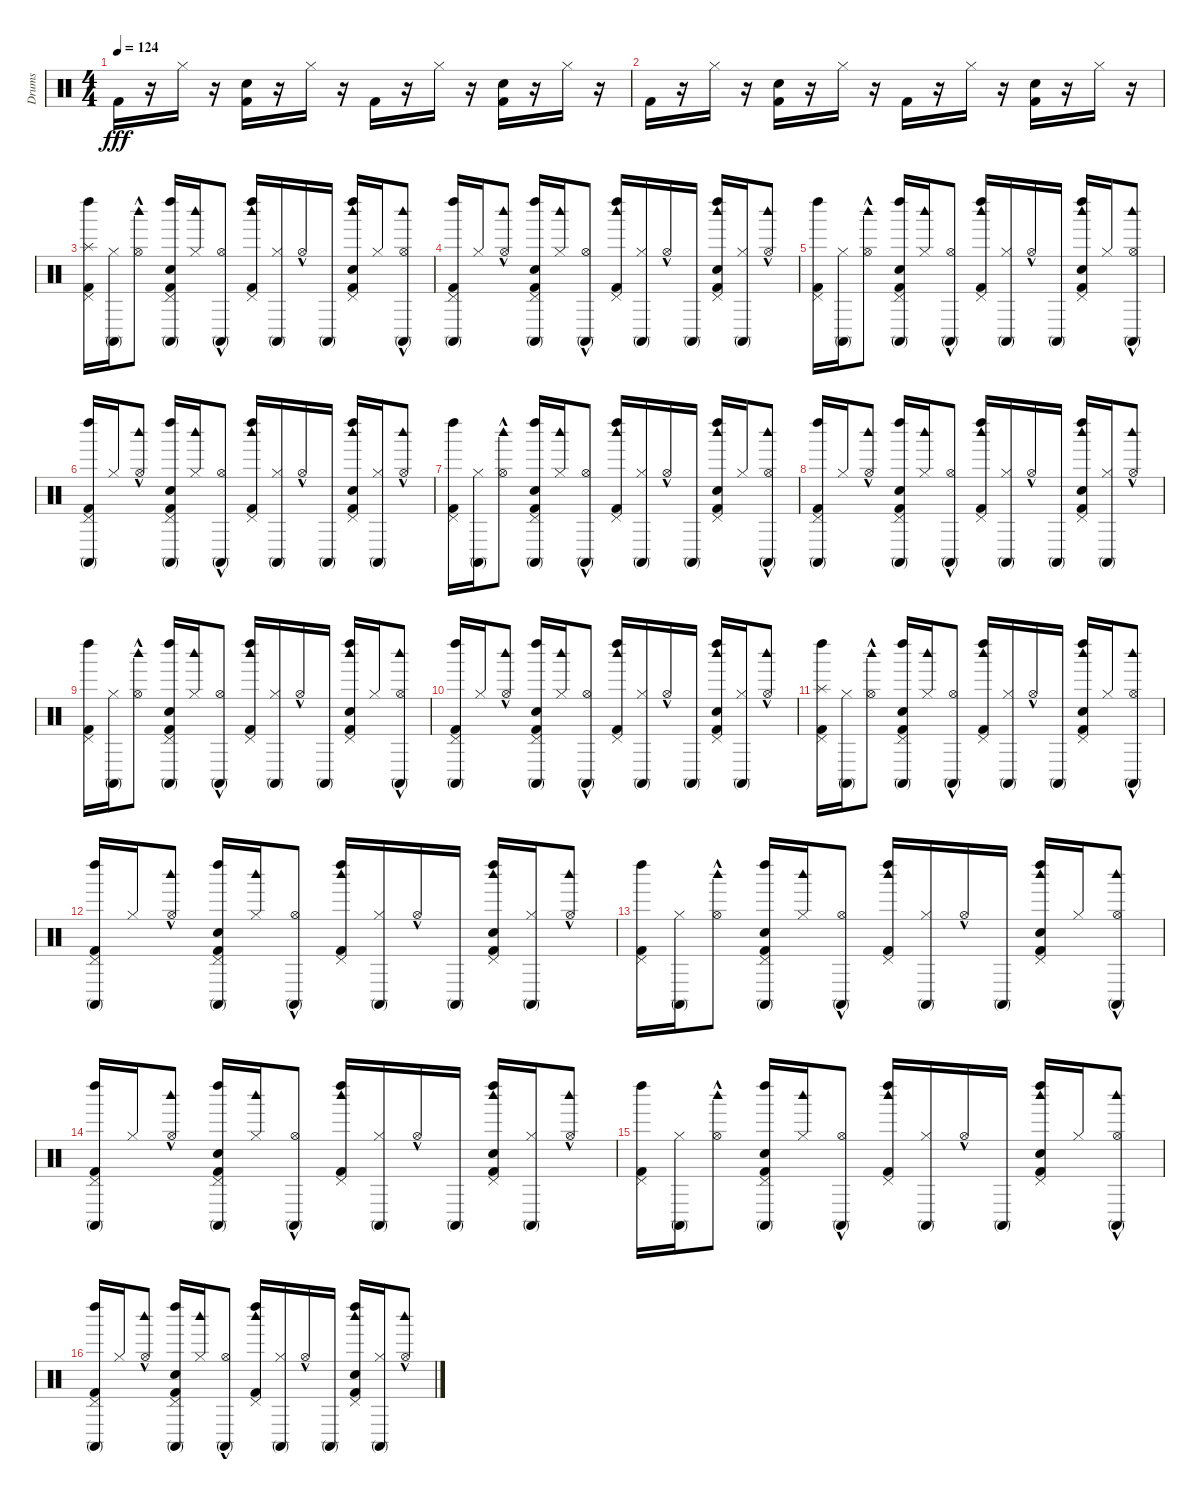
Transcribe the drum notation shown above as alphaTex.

\track ("Drums" "Drums") {instrument percussion}
\staff {score}
\articulation defaults
\ts (4 4)
\tempo 124
\clef neutral
\ks c "Kick (hit) 2".16{dy fff}
r.16 "Hi-Hat (closed)".16 r.16 ("Electric Snare (hit)" "Kick (hit) 2").16 r.16 "Hi-Hat (closed)".16 r.16 "Kick (hit) 2".16 r.16 "Hi-Hat (closed)".16 r.16 ("Electric Snare (hit)" "Kick (hit) 2").16 r.16 "Hi-Hat (closed)".16 r.16 |
"Kick (hit) 2".16 r.16 "Hi-Hat (closed)".16 r.16 ("Electric Snare (hit)" "Kick (hit) 2").16 r.16 "Hi-Hat (closed)".16 r.16 "Kick (hit) 2".16 r.16 "Hi-Hat (closed)".16 r.16 ("Electric Snare (hit)" "Kick (hit) 2").16 r.16 "Hi-Hat (closed)".16 r.16 |
("Splash (hit)" "Pedal Hi-Hat (hit)" "Kick (hit) 2" "Left Maraca (hit)").16 ("Hi-Hat (closed)" "Conga high (mute)").16 ("Hi-Hat (open)"{hac} "Woodblock high (hit)").8 ("Electric Snare (hit)" "Pedal Hi-Hat (hit)" "Kick (hit) 2" "Conga high (mute)" "Left Maraca (hit)").16 ("Hi-Hat (closed)" "Woodblock high (hit)").16 ("Hi-Hat (open)"{hac} "Conga high (mute)").8 ("Pedal Hi-Hat (hit)" "Kick (hit) 2" "Woodblock high (hit)" "Left Maraca (hit)").16 ("Hi-Hat (closed)" "Conga high (mute)").16 "Hi-Hat (open)"{hac}.16 "Conga high (mute)".16 ("Electric Snare (hit)" "Pedal Hi-Hat (hit)" "Kick (hit) 2" "Woodblock high (hit)" "Left Maraca (hit)").16 "Hi-Hat (closed)".16 ("Hi-Hat (open)"{hac} "Conga high (mute)" "Woodblock high (hit)").8 |
("Pedal Hi-Hat (hit)" "Kick (hit) 2" "Conga high (mute)" "Left Maraca (hit)").16 "Hi-Hat (closed)".16 ("Hi-Hat (open)"{hac} "Woodblock high (hit)").8 ("Electric Snare (hit)" "Pedal Hi-Hat (hit)" "Kick (hit) 2" "Conga high (mute)" "Left Maraca (hit)").16 ("Hi-Hat (closed)" "Woodblock high (hit)").16 ("Hi-Hat (open)"{hac} "Conga high (mute)").8 ("Pedal Hi-Hat (hit)" "Kick (hit) 2" "Woodblock high (hit)" "Left Maraca (hit)").16 ("Hi-Hat (closed)" "Conga high (mute)").16 "Hi-Hat (open)"{hac}.16 "Conga high (mute)".16 ("Electric Snare (hit)" "Pedal Hi-Hat (hit)" "Kick (hit) 2" "Woodblock high (hit)" "Left Maraca (hit)").16 ("Hi-Hat (closed)" "Conga high (mute)").16 ("Hi-Hat (open)"{hac} "Woodblock high (hit)").8 |
("Pedal Hi-Hat (hit)" "Kick (hit) 2" "Left Maraca (hit)").16 ("Hi-Hat (closed)" "Conga high (mute)").16 ("Hi-Hat (open)"{hac} "Woodblock high (hit)").8 ("Electric Snare (hit)" "Pedal Hi-Hat (hit)" "Kick (hit) 2" "Conga high (mute)" "Left Maraca (hit)").16 ("Hi-Hat (closed)" "Woodblock high (hit)").16 ("Hi-Hat (open)"{hac} "Conga high (mute)").8 ("Pedal Hi-Hat (hit)" "Kick (hit) 2" "Woodblock high (hit)" "Left Maraca (hit)").16 ("Hi-Hat (closed)" "Conga high (mute)").16 "Hi-Hat (open)"{hac}.16 "Conga high (mute)".16 ("Electric Snare (hit)" "Pedal Hi-Hat (hit)" "Kick (hit) 2" "Woodblock high (hit)" "Left Maraca (hit)").16 "Hi-Hat (closed)".16 ("Hi-Hat (open)"{hac} "Conga high (mute)" "Woodblock high (hit)").8 |
("Pedal Hi-Hat (hit)" "Kick (hit) 2" "Conga high (mute)" "Left Maraca (hit)").16 "Hi-Hat (closed)".16 ("Hi-Hat (open)"{hac} "Woodblock high (hit)").8 ("Electric Snare (hit)" "Pedal Hi-Hat (hit)" "Kick (hit) 2" "Conga high (mute)" "Left Maraca (hit)").16 ("Hi-Hat (closed)" "Woodblock high (hit)").16 ("Hi-Hat (open)"{hac} "Conga high (mute)").8 ("Pedal Hi-Hat (hit)" "Kick (hit) 2" "Woodblock high (hit)" "Left Maraca (hit)").16 ("Hi-Hat (closed)" "Conga high (mute)").16 "Hi-Hat (open)"{hac}.16 "Conga high (mute)".16 ("Electric Snare (hit)" "Pedal Hi-Hat (hit)" "Kick (hit) 2" "Woodblock high (hit)" "Left Maraca (hit)").16 ("Hi-Hat (closed)" "Conga high (mute)").16 ("Hi-Hat (open)"{hac} "Woodblock high (hit)").8 |
("Pedal Hi-Hat (hit)" "Kick (hit) 2" "Left Maraca (hit)").16 ("Hi-Hat (closed)" "Conga high (mute)").16 ("Hi-Hat (open)"{hac} "Woodblock high (hit)").8 ("Electric Snare (hit)" "Pedal Hi-Hat (hit)" "Kick (hit) 2" "Conga high (mute)" "Left Maraca (hit)").16 ("Hi-Hat (closed)" "Woodblock high (hit)").16 ("Hi-Hat (open)"{hac} "Conga high (mute)").8 ("Pedal Hi-Hat (hit)" "Kick (hit) 2" "Woodblock high (hit)" "Left Maraca (hit)").16 ("Hi-Hat (closed)" "Conga high (mute)").16 "Hi-Hat (open)"{hac}.16 "Conga high (mute)".16 ("Electric Snare (hit)" "Pedal Hi-Hat (hit)" "Kick (hit) 2" "Woodblock high (hit)" "Left Maraca (hit)").16 "Hi-Hat (closed)".16 ("Hi-Hat (open)"{hac} "Conga high (mute)" "Woodblock high (hit)").8 |
("Pedal Hi-Hat (hit)" "Kick (hit) 2" "Conga high (mute)" "Left Maraca (hit)").16 "Hi-Hat (closed)".16 ("Hi-Hat (open)"{hac} "Woodblock high (hit)").8 ("Electric Snare (hit)" "Pedal Hi-Hat (hit)" "Kick (hit) 2" "Conga high (mute)" "Left Maraca (hit)").16 ("Hi-Hat (closed)" "Woodblock high (hit)").16 ("Hi-Hat (open)"{hac} "Conga high (mute)").8 ("Pedal Hi-Hat (hit)" "Kick (hit) 2" "Woodblock high (hit)" "Left Maraca (hit)").16 ("Hi-Hat (closed)" "Conga high (mute)").16 "Hi-Hat (open)"{hac}.16 "Conga high (mute)".16 ("Electric Snare (hit)" "Pedal Hi-Hat (hit)" "Kick (hit) 2" "Woodblock high (hit)" "Left Maraca (hit)").16 ("Hi-Hat (closed)" "Conga high (mute)").16 ("Hi-Hat (open)"{hac} "Woodblock high (hit)").8 |
("Pedal Hi-Hat (hit)" "Kick (hit) 2" "Left Maraca (hit)").16 ("Hi-Hat (closed)" "Conga high (mute)").16 ("Hi-Hat (open)"{hac} "Woodblock high (hit)").8 ("Electric Snare (hit)" "Pedal Hi-Hat (hit)" "Kick (hit) 2" "Conga high (mute)" "Left Maraca (hit)").16 ("Hi-Hat (closed)" "Woodblock high (hit)").16 ("Hi-Hat (open)"{hac} "Conga high (mute)").8 ("Pedal Hi-Hat (hit)" "Kick (hit) 2" "Woodblock high (hit)" "Left Maraca (hit)").16 ("Hi-Hat (closed)" "Conga high (mute)").16 "Hi-Hat (open)"{hac}.16 "Conga high (mute)".16 ("Electric Snare (hit)" "Pedal Hi-Hat (hit)" "Kick (hit) 2" "Woodblock high (hit)" "Left Maraca (hit)").16 "Hi-Hat (closed)".16 ("Hi-Hat (open)"{hac} "Conga high (mute)" "Woodblock high (hit)").8 |
("Pedal Hi-Hat (hit)" "Kick (hit) 2" "Conga high (mute)" "Left Maraca (hit)").16 "Hi-Hat (closed)".16 ("Hi-Hat (open)"{hac} "Woodblock high (hit)").8 ("Electric Snare (hit)" "Pedal Hi-Hat (hit)" "Kick (hit) 2" "Conga high (mute)" "Left Maraca (hit)").16 ("Hi-Hat (closed)" "Woodblock high (hit)").16 ("Hi-Hat (open)"{hac} "Conga high (mute)").8 ("Pedal Hi-Hat (hit)" "Kick (hit) 2" "Woodblock high (hit)" "Left Maraca (hit)").16 ("Hi-Hat (closed)" "Conga high (mute)").16 "Hi-Hat (open)"{hac}.16 "Conga high (mute)".16 ("Electric Snare (hit)" "Pedal Hi-Hat (hit)" "Kick (hit) 2" "Woodblock high (hit)" "Left Maraca (hit)").16 ("Hi-Hat (closed)" "Conga high (mute)").16 ("Hi-Hat (open)"{hac} "Woodblock high (hit)").8 |
("Splash (hit)" "Pedal Hi-Hat (hit)" "Kick (hit) 2" "Left Maraca (hit)").16 ("Hi-Hat (closed)" "Conga high (mute)").16 ("Hi-Hat (open)"{hac} "Woodblock high (hit)").8 ("Electric Snare (hit)" "Pedal Hi-Hat (hit)" "Kick (hit) 2" "Conga high (mute)" "Left Maraca (hit)").16 ("Hi-Hat (closed)" "Woodblock high (hit)").16 ("Hi-Hat (open)"{hac} "Conga high (mute)").8 ("Pedal Hi-Hat (hit)" "Kick (hit) 2" "Woodblock high (hit)" "Left Maraca (hit)").16 ("Hi-Hat (closed)" "Conga high (mute)").16 "Hi-Hat (open)"{hac}.16 "Conga high (mute)".16 ("Electric Snare (hit)" "Pedal Hi-Hat (hit)" "Kick (hit) 2" "Woodblock high (hit)" "Left Maraca (hit)").16 "Hi-Hat (closed)".16 ("Hi-Hat (open)"{hac} "Conga high (mute)" "Woodblock high (hit)").8 |
("Pedal Hi-Hat (hit)" "Kick (hit) 2" "Conga high (mute)" "Left Maraca (hit)").16 "Hi-Hat (closed)".16 ("Hi-Hat (open)"{hac} "Woodblock high (hit)").8 ("Electric Snare (hit)" "Pedal Hi-Hat (hit)" "Kick (hit) 2" "Conga high (mute)" "Left Maraca (hit)").16 ("Hi-Hat (closed)" "Woodblock high (hit)").16 ("Hi-Hat (open)"{hac} "Conga high (mute)").8 ("Pedal Hi-Hat (hit)" "Kick (hit) 2" "Woodblock high (hit)" "Left Maraca (hit)").16 ("Hi-Hat (closed)" "Conga high (mute)").16 "Hi-Hat (open)"{hac}.16 "Conga high (mute)".16 ("Electric Snare (hit)" "Pedal Hi-Hat (hit)" "Kick (hit) 2" "Woodblock high (hit)" "Left Maraca (hit)").16 ("Hi-Hat (closed)" "Conga high (mute)").16 ("Hi-Hat (open)"{hac} "Woodblock high (hit)").8 |
("Pedal Hi-Hat (hit)" "Kick (hit) 2" "Left Maraca (hit)").16 ("Hi-Hat (closed)" "Conga high (mute)").16 ("Hi-Hat (open)"{hac} "Woodblock high (hit)").8 ("Electric Snare (hit)" "Pedal Hi-Hat (hit)" "Kick (hit) 2" "Conga high (mute)" "Left Maraca (hit)").16 ("Hi-Hat (closed)" "Woodblock high (hit)").16 ("Hi-Hat (open)"{hac} "Conga high (mute)").8 ("Pedal Hi-Hat (hit)" "Kick (hit) 2" "Woodblock high (hit)" "Left Maraca (hit)").16 ("Hi-Hat (closed)" "Conga high (mute)").16 "Hi-Hat (open)"{hac}.16 "Conga high (mute)".16 ("Electric Snare (hit)" "Pedal Hi-Hat (hit)" "Kick (hit) 2" "Woodblock high (hit)" "Left Maraca (hit)").16 "Hi-Hat (closed)".16 ("Hi-Hat (open)"{hac} "Conga high (mute)" "Woodblock high (hit)").8 |
("Pedal Hi-Hat (hit)" "Kick (hit) 2" "Conga high (mute)" "Left Maraca (hit)").16 "Hi-Hat (closed)".16 ("Hi-Hat (open)"{hac} "Woodblock high (hit)").8 ("Electric Snare (hit)" "Pedal Hi-Hat (hit)" "Kick (hit) 2" "Conga high (mute)" "Left Maraca (hit)").16 ("Hi-Hat (closed)" "Woodblock high (hit)").16 ("Hi-Hat (open)"{hac} "Conga high (mute)").8 ("Pedal Hi-Hat (hit)" "Kick (hit) 2" "Woodblock high (hit)" "Left Maraca (hit)").16 ("Hi-Hat (closed)" "Conga high (mute)").16 "Hi-Hat (open)"{hac}.16 "Conga high (mute)".16 ("Electric Snare (hit)" "Pedal Hi-Hat (hit)" "Kick (hit) 2" "Woodblock high (hit)" "Left Maraca (hit)").16 ("Hi-Hat (closed)" "Conga high (mute)").16 ("Hi-Hat (open)"{hac} "Woodblock high (hit)").8 |
("Pedal Hi-Hat (hit)" "Kick (hit) 2" "Left Maraca (hit)").16 ("Hi-Hat (closed)" "Conga high (mute)").16 ("Hi-Hat (open)"{hac} "Woodblock high (hit)").8 ("Electric Snare (hit)" "Pedal Hi-Hat (hit)" "Kick (hit) 2" "Conga high (mute)" "Left Maraca (hit)").16 ("Hi-Hat (closed)" "Woodblock high (hit)").16 ("Hi-Hat (open)"{hac} "Conga high (mute)").8 ("Pedal Hi-Hat (hit)" "Kick (hit) 2" "Woodblock high (hit)" "Left Maraca (hit)").16 ("Hi-Hat (closed)" "Conga high (mute)").16 "Hi-Hat (open)"{hac}.16 "Conga high (mute)".16 ("Electric Snare (hit)" "Pedal Hi-Hat (hit)" "Kick (hit) 2" "Woodblock high (hit)" "Left Maraca (hit)").16 "Hi-Hat (closed)".16 ("Hi-Hat (open)"{hac} "Conga high (mute)" "Woodblock high (hit)").8 |
("Pedal Hi-Hat (hit)" "Kick (hit) 2" "Conga high (mute)" "Left Maraca (hit)").16 "Hi-Hat (closed)".16 ("Hi-Hat (open)"{hac} "Woodblock high (hit)").8 ("Electric Snare (hit)" "Pedal Hi-Hat (hit)" "Kick (hit) 2" "Conga high (mute)" "Left Maraca (hit)").16 ("Hi-Hat (closed)" "Woodblock high (hit)").16 ("Hi-Hat (open)"{hac} "Conga high (mute)").8 ("Pedal Hi-Hat (hit)" "Kick (hit) 2" "Woodblock high (hit)" "Left Maraca (hit)").16 ("Hi-Hat (closed)" "Conga high (mute)").16 "Hi-Hat (open)"{hac}.16 "Conga high (mute)".16 ("Electric Snare (hit)" "Pedal Hi-Hat (hit)" "Kick (hit) 2" "Woodblock high (hit)" "Left Maraca (hit)").16 ("Hi-Hat (closed)" "Conga high (mute)").16 ("Hi-Hat (open)"{hac} "Woodblock high (hit)").8
